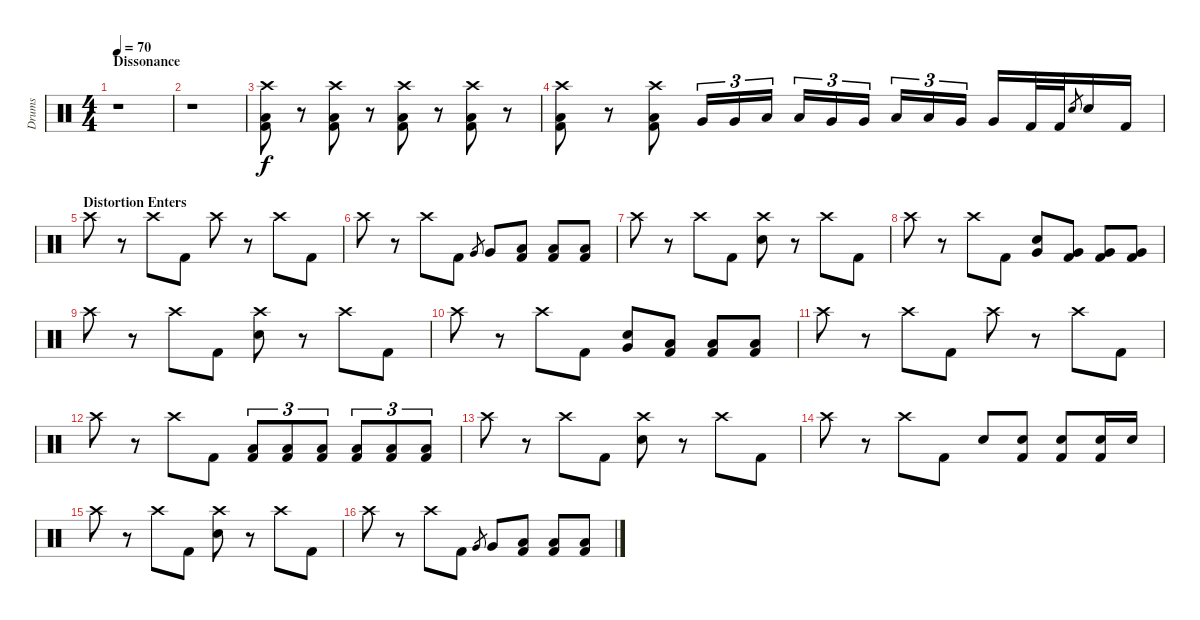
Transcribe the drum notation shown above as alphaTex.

\track ("Drums" "Drums") {instrument percussion}
\staff {score}
\articulation defaults
\ts (4 4)
\section ("" "Dissonance")
\tempo 70
\clef neutral
\ks c
r.1{dy f} |
r.1 |
("Crash high (hit)" "Low Floor Tom (hit)" "Kick (hit) 2").8 r.8 ("Crash high (hit)" "Low Floor Tom (hit)" "Kick (hit) 2").8 r.8 ("Crash high (hit)" "Low Floor Tom (hit)" "Kick (hit) 2").8 r.8 ("Crash high (hit)" "Low Floor Tom (hit)" "Kick (hit) 2").8 r.8 |
("Crash high (hit)" "Low Floor Tom (hit)" "Kick (hit) 2").8 r.8 ("Crash high (hit)" "Low Floor Tom (hit)" "Kick (hit) 2").8 "Very Low Tom (hit)".16{tu (3 2)} "Very Low Tom (hit)".16{tu (3 2)} "Low Floor Tom (hit)".16{tu (3 2)} "Low Floor Tom (hit)".16{tu (3 2)} "Very Low Tom (hit)".16{tu (3 2)} "Very Low Tom (hit)".16{tu (3 2)} "Low Tom (hit)".16{tu (3 2)} "Low Tom (hit)".16{tu (3 2)} "Very Low Tom (hit)".16{tu (3 2)} "Very Low Tom (hit)".16 "Kick (hit) 2".32 "Kick (hit) 2".32 "Electric Snare (hit)".8{gr} "Electric Snare (hit)".16 "Kick (hit) 2".16 |
\section ("" "Distortion Enters")
"Crash high (hit)".8 r.8 "Crash high (hit)".8 "Kick (hit) 2".8 "Crash high (hit)".8 r.8 "Crash high (hit)".8 "Kick (hit) 2".8 |
"Crash high (hit)".8 r.8 "Crash high (hit)".8 "Kick (hit) 2".8 "Very Low Tom (hit)".8{gr} "Very Low Tom (hit)".8 ("Low Floor Tom (hit)" "Kick (hit) 2").8 ("Low Floor Tom (hit)" "Kick (hit) 2").8 ("Low Floor Tom (hit)" "Kick (hit) 2").8 |
"Crash high (hit)".8 r.8 "Crash high (hit)".8 "Kick (hit) 2".8 ("Crash high (hit)" "Electric Snare (hit)").8 r.8 "Crash high (hit)".8 "Kick (hit) 2".8 |
"Crash high (hit)".8 r.8 "Crash high (hit)".8 "Kick (hit) 2".8 ("Electric Snare (hit)" "Very Low Tom (hit)").8 ("Very Low Tom (hit)" "Kick (hit) 2").8 ("Very Low Tom (hit)" "Kick (hit) 2").8 ("Very Low Tom (hit)" "Kick (hit) 2").8 |
"Crash high (hit)".8 r.8 "Crash high (hit)".8 "Kick (hit) 2".8 ("Crash high (hit)" "Electric Snare (hit)").8 r.8 "Crash high (hit)".8 "Kick (hit) 2".8 |
"Crash high (hit)".8 r.8 "Crash high (hit)".8 "Kick (hit) 2".8 ("Electric Snare (hit)" "Very Low Tom (hit)").8 ("Low Floor Tom (hit)" "Kick (hit) 2").8 ("Low Floor Tom (hit)" "Kick (hit) 2").8 ("Low Floor Tom (hit)" "Kick (hit) 2").8 |
"Crash high (hit)".8 r.8 "Crash high (hit)".8 "Kick (hit) 2".8 "Crash high (hit)".8 r.8 "Crash high (hit)".8 "Kick (hit) 2".8 |
"Crash high (hit)".8 r.8 "Crash high (hit)".8 "Kick (hit) 2".8 ("Low Floor Tom (hit)" "Kick (hit) 2").8{tu (3 2)} ("Low Floor Tom (hit)" "Kick (hit) 2").8{tu (3 2)} ("Low Floor Tom (hit)" "Kick (hit) 2").8{tu (3 2)} ("Low Floor Tom (hit)" "Kick (hit) 2").8{tu (3 2)} ("Low Floor Tom (hit)" "Kick (hit) 2").8{tu (3 2)} ("Low Floor Tom (hit)" "Kick (hit) 2").8{tu (3 2)} |
"Crash high (hit)".8 r.8 "Crash high (hit)".8 "Kick (hit) 2".8 ("Crash high (hit)" "Electric Snare (hit)").8 r.8 "Crash high (hit)".8 "Kick (hit) 2".8 |
"Crash high (hit)".8 r.8 "Crash high (hit)".8 "Kick (hit) 2".8 "Electric Snare (hit)".8 ("Electric Snare (hit)" "Kick (hit) 2").8 ("Electric Snare (hit)" "Kick (hit) 2").8 ("Electric Snare (hit)" "Kick (hit) 2").16 "Electric Snare (hit)".16 |
"Crash high (hit)".8 r.8 "Crash high (hit)".8 "Kick (hit) 2".8 ("Crash high (hit)" "Electric Snare (hit)").8 r.8 "Crash high (hit)".8 "Kick (hit) 2".8 |
"Crash high (hit)".8 r.8 "Crash high (hit)".8 "Kick (hit) 2".8 "Very Low Tom (hit)".8{gr} "Very Low Tom (hit)".8 ("Low Floor Tom (hit)" "Kick (hit) 2").8 ("Low Floor Tom (hit)" "Kick (hit) 2").8 ("Low Floor Tom (hit)" "Kick (hit) 2").8
